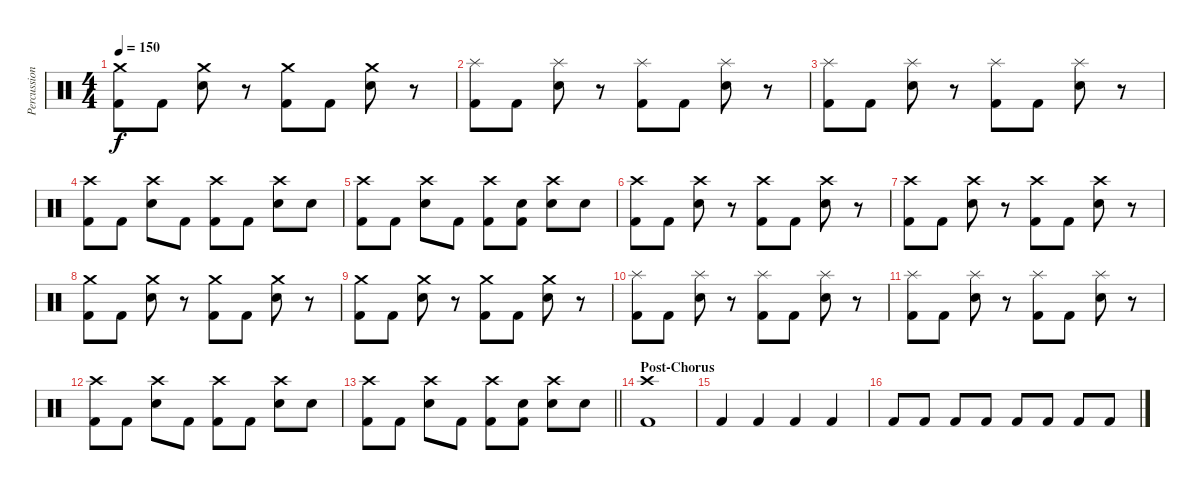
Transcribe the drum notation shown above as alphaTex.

\track ("Percussion" "Percussion") {instrument percussion}
\staff {score}
\articulation defaults
\ts (4 4)
\tempo 150
\clef neutral
\ks c
("Crash medium (hit)" "Kick (hit) 2").8{dy f} "Kick (hit) 2".8 ("Crash medium (hit)" "Electric Snare (hit)").8 r.8 ("Crash medium (hit)" "Kick (hit) 2").8 "Kick (hit) 2".8 ("Crash medium (hit)" "Electric Snare (hit)").8 r.8 |
("Splash (hit)" "Kick (hit) 2").8 "Kick (hit) 2".8 ("Splash (hit)" "Electric Snare (hit)").8 r.8 ("Splash (hit)" "Kick (hit) 2").8 "Kick (hit) 2".8 ("Splash (hit)" "Electric Snare (hit)").8 r.8 |
("Splash (hit)" "Kick (hit) 2").8 "Kick (hit) 2".8 ("Splash (hit)" "Electric Snare (hit)").8 r.8 ("Splash (hit)" "Kick (hit) 2").8 "Kick (hit) 2".8 ("Splash (hit)" "Electric Snare (hit)").8 r.8 |
("Crash high (hit)" "Kick (hit) 2").8 "Kick (hit) 2".8 ("Crash high (hit)" "Electric Snare (hit)").8 "Kick (hit) 2".8 ("Crash high (hit)" "Kick (hit) 2").8 "Kick (hit) 2".8 ("Crash high (hit)" "Electric Snare (hit)").8 "Electric Snare (hit)".8 |
("Crash high (hit)" "Kick (hit) 2").8 "Kick (hit) 2".8 ("Crash high (hit)" "Electric Snare (hit)").8 "Kick (hit) 2".8 ("Crash high (hit)" "Kick (hit) 2").8 ("Electric Snare (hit)" "Kick (hit) 2").8 ("Crash high (hit)" "Electric Snare (hit)").8 "Electric Snare (hit)".8 |
("Crash high (hit)" "Kick (hit) 2").8 "Kick (hit) 2".8 ("Crash high (hit)" "Electric Snare (hit)").8 r.8 ("Crash high (hit)" "Kick (hit) 2").8 "Kick (hit) 2".8 ("Crash high (hit)" "Electric Snare (hit)").8 r.8 |
("Crash high (hit)" "Kick (hit) 2").8 "Kick (hit) 2".8 ("Crash high (hit)" "Electric Snare (hit)").8 r.8 ("Crash high (hit)" "Kick (hit) 2").8 "Kick (hit) 2".8 ("Crash high (hit)" "Electric Snare (hit)").8 r.8 |
("Crash medium (hit)" "Kick (hit) 2").8 "Kick (hit) 2".8 ("Crash medium (hit)" "Electric Snare (hit)").8 r.8 ("Crash medium (hit)" "Kick (hit) 2").8 "Kick (hit) 2".8 ("Crash medium (hit)" "Electric Snare (hit)").8 r.8 |
("Crash medium (hit)" "Kick (hit) 2").8 "Kick (hit) 2".8 ("Crash medium (hit)" "Electric Snare (hit)").8 r.8 ("Crash medium (hit)" "Kick (hit) 2").8 "Kick (hit) 2".8 ("Crash medium (hit)" "Electric Snare (hit)").8 r.8 |
("Splash (hit)" "Kick (hit) 2").8 "Kick (hit) 2".8 ("Splash (hit)" "Electric Snare (hit)").8 r.8 ("Splash (hit)" "Kick (hit) 2").8 "Kick (hit) 2".8 ("Splash (hit)" "Electric Snare (hit)").8 r.8 |
("Splash (hit)" "Kick (hit) 2").8 "Kick (hit) 2".8 ("Splash (hit)" "Electric Snare (hit)").8 r.8 ("Splash (hit)" "Kick (hit) 2").8 "Kick (hit) 2".8 ("Splash (hit)" "Electric Snare (hit)").8 r.8 |
("Crash high (hit)" "Kick (hit) 2").8 "Kick (hit) 2".8 ("Crash high (hit)" "Electric Snare (hit)").8 "Kick (hit) 2".8 ("Crash high (hit)" "Kick (hit) 2").8 "Kick (hit) 2".8 ("Crash high (hit)" "Electric Snare (hit)").8 "Electric Snare (hit)".8 |
\barLineRight lightlight
("Crash high (hit)" "Kick (hit) 2").8 "Kick (hit) 2".8 ("Crash high (hit)" "Electric Snare (hit)").8 "Kick (hit) 2".8 ("Crash high (hit)" "Kick (hit) 2").8 ("Electric Snare (hit)" "Kick (hit) 2").8 ("Crash high (hit)" "Electric Snare (hit)").8 "Electric Snare (hit)".8 |
\section ("" "Post-Chorus")
("Crash high (hit)" "Kick (hit) 2").1 |
"Kick (hit) 2".4 "Kick (hit) 2".4 "Kick (hit) 2".4 "Kick (hit) 2".4 |
"Kick (hit) 2".8 "Kick (hit) 2".8 "Kick (hit) 2".8 "Kick (hit) 2".8 "Kick (hit) 2".8 "Kick (hit) 2".8 "Kick (hit) 2".8 "Kick (hit) 2".8
